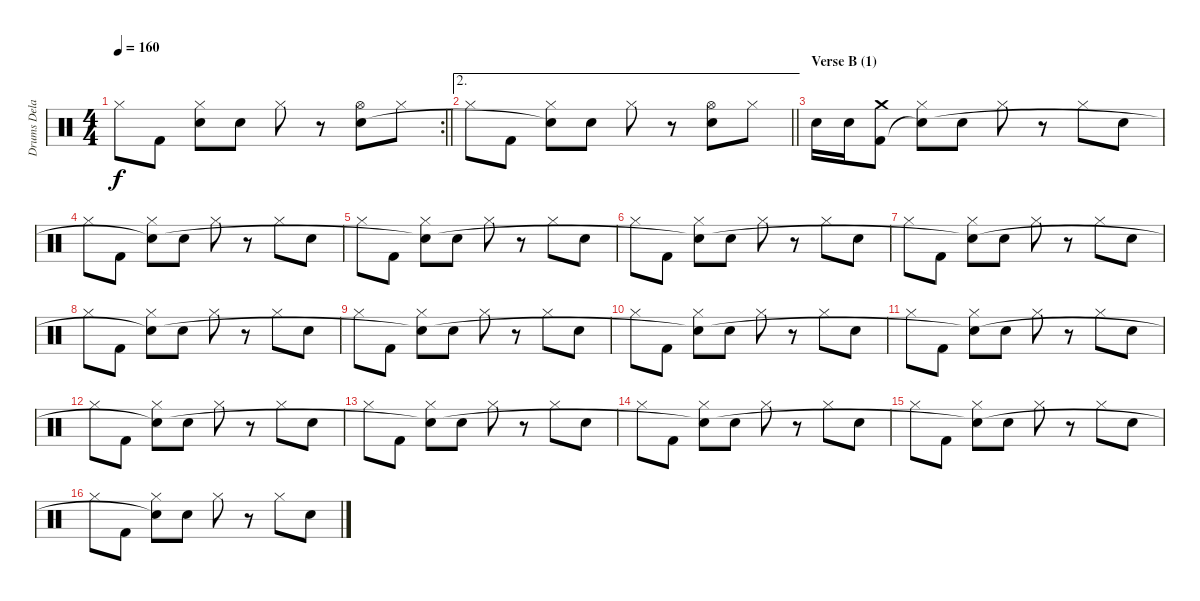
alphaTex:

\track ("Drums Delay" "Drums Dela") {instrument percussion}
\staff {score}
\articulation defaults
\rc 2
\ts (4 4)
\tempo 160
\clef neutral
\barLineRight lightlight
\ks c "Hi-Hat (closed)".8{dy f} "Kick (hit) 2".8
("Hi-Hat (closed)" "Snare (hit)"{t}).8 "Electric Snare (hit)".8 "Hi-Hat (closed)".8 r.8 ("Hi-Hat (open)" "Electric Snare (hit)").8 "Hi-Hat (closed)".8 |
\ae 2
\barLineRight lightlight "Hi-Hat (closed)".8 "Kick (hit) 2".8
("Hi-Hat (closed)" "Snare (hit)"{t}).8 "Electric Snare (hit)".8 "Hi-Hat (closed)".8 r.8 ("Hi-Hat (open)" "Electric Snare (hit)").8 "Hi-Hat (closed)".8 |
\section ("" "Verse B (1)")
"Electric Snare (hit)".16 "Electric Snare (hit)".16 ("Crash medium (hit)" "Kick (hit) 2").8 ("Hi-Hat (closed)" "Snare (hit)"{t}).8 "Electric Snare (hit)".8 "Hi-Hat (closed)".8 r.8 "Hi-Hat (closed)".8 "Electric Snare (hit)".8 |
"Hi-Hat (closed)".8 "Kick (hit) 2".8 ("Hi-Hat (closed)" "Snare (hit)"{t}).8 "Electric Snare (hit)".8 "Hi-Hat (closed)".8 r.8 "Hi-Hat (closed)".8 "Electric Snare (hit)".8 |
"Hi-Hat (closed)".8 "Kick (hit) 2".8 ("Hi-Hat (closed)" "Snare (hit)"{t}).8 "Electric Snare (hit)".8 "Hi-Hat (closed)".8 r.8 "Hi-Hat (closed)".8 "Electric Snare (hit)".8 |
"Hi-Hat (closed)".8 "Kick (hit) 2".8 ("Hi-Hat (closed)" "Snare (hit)"{t}).8 "Electric Snare (hit)".8 "Hi-Hat (closed)".8 r.8 "Hi-Hat (closed)".8 "Electric Snare (hit)".8 |
"Hi-Hat (closed)".8 "Kick (hit) 2".8 ("Hi-Hat (closed)" "Snare (hit)"{t}).8 "Electric Snare (hit)".8 "Hi-Hat (closed)".8 r.8 "Hi-Hat (closed)".8 "Electric Snare (hit)".8 |
"Hi-Hat (closed)".8 "Kick (hit) 2".8 ("Hi-Hat (closed)" "Snare (hit)"{t}).8 "Electric Snare (hit)".8 "Hi-Hat (closed)".8 r.8 "Hi-Hat (closed)".8 "Electric Snare (hit)".8 |
"Hi-Hat (closed)".8 "Kick (hit) 2".8 ("Hi-Hat (closed)" "Snare (hit)"{t}).8 "Electric Snare (hit)".8 "Hi-Hat (closed)".8 r.8 "Hi-Hat (closed)".8 "Electric Snare (hit)".8 |
"Hi-Hat (closed)".8 "Kick (hit) 2".8 ("Hi-Hat (closed)" "Snare (hit)"{t}).8 "Electric Snare (hit)".8 "Hi-Hat (closed)".8 r.8 "Hi-Hat (closed)".8 "Electric Snare (hit)".8 |
"Hi-Hat (closed)".8 "Kick (hit) 2".8 ("Hi-Hat (closed)" "Snare (hit)"{t}).8 "Electric Snare (hit)".8 "Hi-Hat (closed)".8 r.8 "Hi-Hat (closed)".8 "Electric Snare (hit)".8 |
"Hi-Hat (closed)".8 "Kick (hit) 2".8 ("Hi-Hat (closed)" "Snare (hit)"{t}).8 "Electric Snare (hit)".8 "Hi-Hat (closed)".8 r.8 "Hi-Hat (closed)".8 "Electric Snare (hit)".8 |
"Hi-Hat (closed)".8 "Kick (hit) 2".8 ("Hi-Hat (closed)" "Snare (hit)"{t}).8 "Electric Snare (hit)".8 "Hi-Hat (closed)".8 r.8 "Hi-Hat (closed)".8 "Electric Snare (hit)".8 |
"Hi-Hat (closed)".8 "Kick (hit) 2".8 ("Hi-Hat (closed)" "Snare (hit)"{t}).8 "Electric Snare (hit)".8 "Hi-Hat (closed)".8 r.8 "Hi-Hat (closed)".8 "Electric Snare (hit)".8 |
"Hi-Hat (closed)".8 "Kick (hit) 2".8 ("Hi-Hat (closed)" "Snare (hit)"{t}).8 "Electric Snare (hit)".8 "Hi-Hat (closed)".8 r.8 "Hi-Hat (closed)".8 "Electric Snare (hit)".8 |
"Hi-Hat (closed)".8 "Kick (hit) 2".8 ("Hi-Hat (closed)" "Snare (hit)"{t}).8 "Electric Snare (hit)".8 "Hi-Hat (closed)".8 r.8 "Hi-Hat (closed)".8 "Electric Snare (hit)".8
